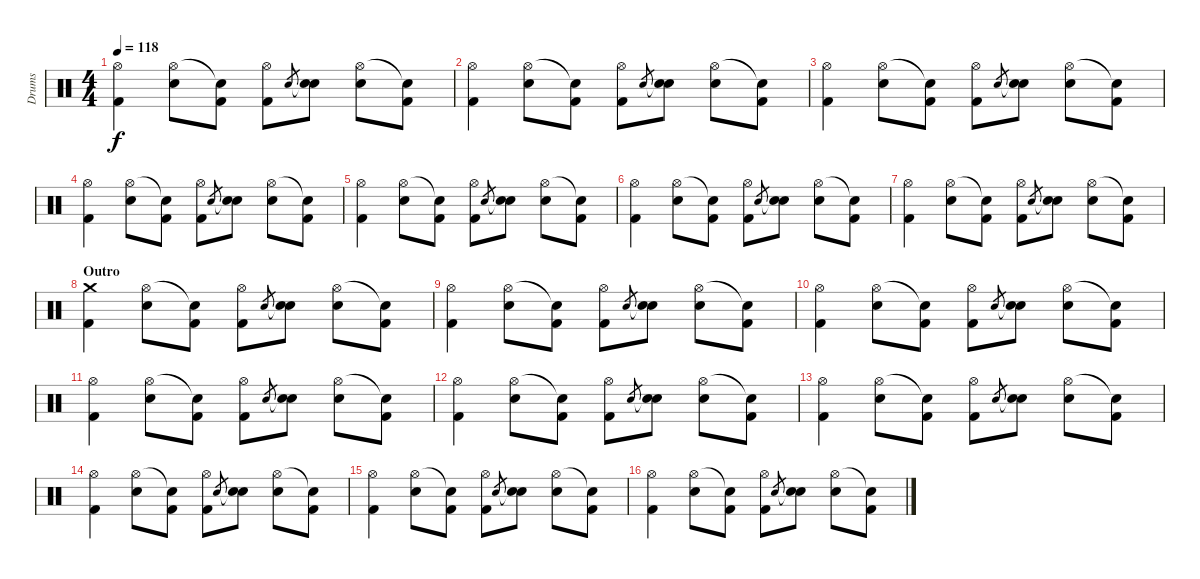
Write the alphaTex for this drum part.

\track ("Drums" "Drums") {instrument percussion}
\staff {score}
\articulation defaults
\ts (4 4)
\tempo 118
\clef neutral
\ks c
("Hi-Hat (open)" "Kick (hit) 2").4{dy f} ("Hi-Hat (open)" "Electric Snare (hit)").8 ("Snare (hit)"{t} "Kick (hit) 2").8 ("Hi-Hat (open)" "Kick (hit) 2").8 "Electric Snare (hit)".8{gr} ("Snare (hit)"{t} "Electric Snare (hit)").8 ("Hi-Hat (open)" "Electric Snare (hit)").8 ("Snare (hit)"{t} "Kick (hit) 2").8 |
("Hi-Hat (open)" "Kick (hit) 2").4 ("Hi-Hat (open)" "Electric Snare (hit)").8 ("Snare (hit)"{t} "Kick (hit) 2").8 ("Hi-Hat (open)" "Kick (hit) 2").8 "Electric Snare (hit)".8{gr} ("Snare (hit)"{t} "Electric Snare (hit)").8 ("Hi-Hat (open)" "Electric Snare (hit)").8 ("Snare (hit)"{t} "Kick (hit) 2").8 |
("Hi-Hat (open)" "Kick (hit) 2").4 ("Hi-Hat (open)" "Electric Snare (hit)").8 ("Snare (hit)"{t} "Kick (hit) 2").8 ("Hi-Hat (open)" "Kick (hit) 2").8 "Electric Snare (hit)".8{gr} ("Snare (hit)"{t} "Electric Snare (hit)").8 ("Hi-Hat (open)" "Electric Snare (hit)").8 ("Snare (hit)"{t} "Kick (hit) 2").8 |
("Hi-Hat (open)" "Kick (hit) 2").4 ("Hi-Hat (open)" "Electric Snare (hit)").8 ("Snare (hit)"{t} "Kick (hit) 2").8 ("Hi-Hat (open)" "Kick (hit) 2").8 "Electric Snare (hit)".8{gr} ("Snare (hit)"{t} "Electric Snare (hit)").8 ("Hi-Hat (open)" "Electric Snare (hit)").8 ("Snare (hit)"{t} "Kick (hit) 2").8 |
("Hi-Hat (open)" "Kick (hit) 2").4 ("Hi-Hat (open)" "Electric Snare (hit)").8 ("Snare (hit)"{t} "Kick (hit) 2").8 ("Hi-Hat (open)" "Kick (hit) 2").8 "Electric Snare (hit)".8{gr} ("Snare (hit)"{t} "Electric Snare (hit)").8 ("Hi-Hat (open)" "Electric Snare (hit)").8 ("Snare (hit)"{t} "Kick (hit) 2").8 |
("Hi-Hat (open)" "Kick (hit) 2").4 ("Hi-Hat (open)" "Electric Snare (hit)").8 ("Snare (hit)"{t} "Kick (hit) 2").8 ("Hi-Hat (open)" "Kick (hit) 2").8 "Electric Snare (hit)".8{gr} ("Snare (hit)"{t} "Electric Snare (hit)").8 ("Hi-Hat (open)" "Electric Snare (hit)").8 ("Snare (hit)"{t} "Kick (hit) 2").8 |
("Hi-Hat (open)" "Kick (hit) 2").4 ("Hi-Hat (open)" "Electric Snare (hit)").8 ("Snare (hit)"{t} "Kick (hit) 2").8 ("Hi-Hat (open)" "Kick (hit) 2").8 "Electric Snare (hit)".8{gr} ("Snare (hit)"{t} "Electric Snare (hit)").8 ("Hi-Hat (open)" "Electric Snare (hit)").8 ("Snare (hit)"{t} "Kick (hit) 2").8 |
\section ("" "Outro")
("Crash medium (hit)" "Kick (hit) 2").4 ("Hi-Hat (open)" "Electric Snare (hit)").8 ("Snare (hit)"{t} "Kick (hit) 2").8 ("Hi-Hat (open)" "Kick (hit) 2").8 "Electric Snare (hit)".8{gr} ("Snare (hit)"{t} "Electric Snare (hit)").8 ("Hi-Hat (open)" "Electric Snare (hit)").8 ("Snare (hit)"{t} "Kick (hit) 2").8 |
("Hi-Hat (open)" "Kick (hit) 2").4 ("Hi-Hat (open)" "Electric Snare (hit)").8 ("Snare (hit)"{t} "Kick (hit) 2").8 ("Hi-Hat (open)" "Kick (hit) 2").8 "Electric Snare (hit)".8{gr} ("Snare (hit)"{t} "Electric Snare (hit)").8 ("Hi-Hat (open)" "Electric Snare (hit)").8 ("Snare (hit)"{t} "Kick (hit) 2").8 |
("Hi-Hat (open)" "Kick (hit) 2").4 ("Hi-Hat (open)" "Electric Snare (hit)").8 ("Snare (hit)"{t} "Kick (hit) 2").8 ("Hi-Hat (open)" "Kick (hit) 2").8 "Electric Snare (hit)".8{gr} ("Snare (hit)"{t} "Electric Snare (hit)").8 ("Hi-Hat (open)" "Electric Snare (hit)").8 ("Snare (hit)"{t} "Kick (hit) 2").8 |
("Hi-Hat (open)" "Kick (hit) 2").4 ("Hi-Hat (open)" "Electric Snare (hit)").8 ("Snare (hit)"{t} "Kick (hit) 2").8 ("Hi-Hat (open)" "Kick (hit) 2").8 "Electric Snare (hit)".8{gr} ("Snare (hit)"{t} "Electric Snare (hit)").8 ("Hi-Hat (open)" "Electric Snare (hit)").8 ("Snare (hit)"{t} "Kick (hit) 2").8 |
("Hi-Hat (open)" "Kick (hit) 2").4 ("Hi-Hat (open)" "Electric Snare (hit)").8 ("Snare (hit)"{t} "Kick (hit) 2").8 ("Hi-Hat (open)" "Kick (hit) 2").8 "Electric Snare (hit)".8{gr} ("Snare (hit)"{t} "Electric Snare (hit)").8 ("Hi-Hat (open)" "Electric Snare (hit)").8 ("Snare (hit)"{t} "Kick (hit) 2").8 |
("Hi-Hat (open)" "Kick (hit) 2").4 ("Hi-Hat (open)" "Electric Snare (hit)").8 ("Snare (hit)"{t} "Kick (hit) 2").8 ("Hi-Hat (open)" "Kick (hit) 2").8 "Electric Snare (hit)".8{gr} ("Snare (hit)"{t} "Electric Snare (hit)").8 ("Hi-Hat (open)" "Electric Snare (hit)").8 ("Snare (hit)"{t} "Kick (hit) 2").8 |
("Hi-Hat (open)" "Kick (hit) 2").4 ("Hi-Hat (open)" "Electric Snare (hit)").8 ("Snare (hit)"{t} "Kick (hit) 2").8 ("Hi-Hat (open)" "Kick (hit) 2").8 "Electric Snare (hit)".8{gr} ("Snare (hit)"{t} "Electric Snare (hit)").8 ("Hi-Hat (open)" "Electric Snare (hit)").8 ("Snare (hit)"{t} "Kick (hit) 2").8 |
("Hi-Hat (open)" "Kick (hit) 2").4 ("Hi-Hat (open)" "Electric Snare (hit)").8 ("Snare (hit)"{t} "Kick (hit) 2").8 ("Hi-Hat (open)" "Kick (hit) 2").8 "Electric Snare (hit)".8{gr} ("Snare (hit)"{t} "Electric Snare (hit)").8 ("Hi-Hat (open)" "Electric Snare (hit)").8 ("Snare (hit)"{t} "Kick (hit) 2").8 |
("Hi-Hat (open)" "Kick (hit) 2").4 ("Hi-Hat (open)" "Electric Snare (hit)").8 ("Snare (hit)"{t} "Kick (hit) 2").8 ("Hi-Hat (open)" "Kick (hit) 2").8 "Electric Snare (hit)".8{gr} ("Snare (hit)"{t} "Electric Snare (hit)").8 ("Hi-Hat (open)" "Electric Snare (hit)").8 ("Snare (hit)"{t} "Kick (hit) 2").8
